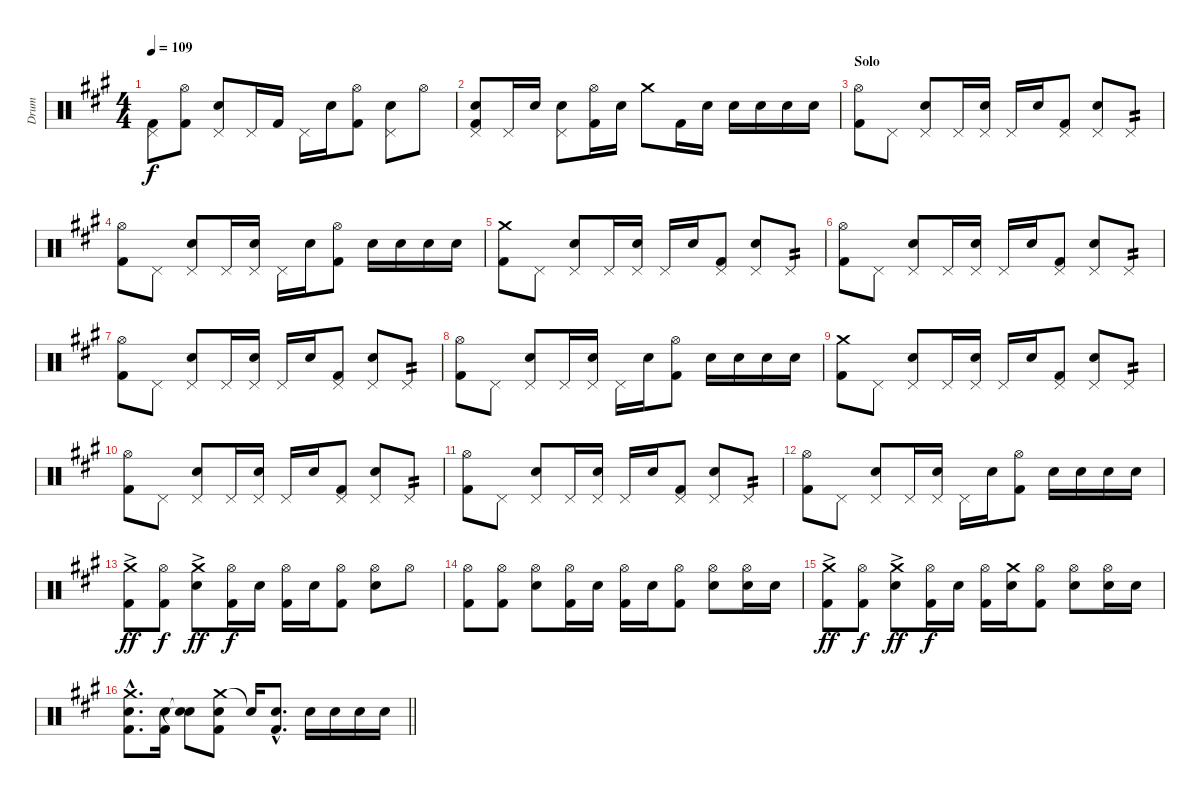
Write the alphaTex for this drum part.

\track ("Drum" "Drum") {instrument percussion}
\staff {score}
\articulation defaults
\ts (4 4)
\tempo 109
\clef neutral
\ks f#minor
("Pedal Hi-Hat (hit)" "Kick (hit) 2").8{dy f} ("Hi-Hat (open)" "Kick (hit) 2").8 ("Pedal Hi-Hat (hit)" "Electric Snare (hit)").8 "Pedal Hi-Hat (hit)".16 "Kick (hit) 2".16 "Pedal Hi-Hat (hit)".16 "Electric Snare (hit)".16 ("Hi-Hat (open)" "Kick (hit) 2").8 ("Pedal Hi-Hat (hit)" "Electric Snare (hit)").8 "Hi-Hat (open)".8 |
("Pedal Hi-Hat (hit)" "Electric Snare (hit)" "Kick (hit) 2").8 "Pedal Hi-Hat (hit)".16 "Electric Snare (hit)".16 ("Pedal Hi-Hat (hit)" "Electric Snare (hit)").8 ("Hi-Hat (open)" "Kick (hit) 2").16 "Electric Snare (hit)".16 "Crash medium (hit)".8 "Kick (hit) 2".16 "Electric Snare (hit)".16 "Electric Snare (hit)".16 "Electric Snare (hit)".16 "Electric Snare (hit)".16 "Electric Snare (hit)".16 |
\section ("" "Solo")
("Hi-Hat (open)" "Kick (hit) 2").8 "Pedal Hi-Hat (hit)".8 ("Pedal Hi-Hat (hit)" "Electric Snare (hit)").8 "Pedal Hi-Hat (hit)".16 ("Pedal Hi-Hat (hit)" "Electric Snare (hit)").16 "Pedal Hi-Hat (hit)".16 "Electric Snare (hit)".16 ("Pedal Hi-Hat (hit)" "Kick (hit) 2").8 ("Pedal Hi-Hat (hit)" "Electric Snare (hit)").8 "Pedal Hi-Hat (hit)".8{tp 2} |
("Hi-Hat (open)" "Kick (hit) 2").8 "Pedal Hi-Hat (hit)".8 ("Pedal Hi-Hat (hit)" "Electric Snare (hit)").8 "Pedal Hi-Hat (hit)".16 ("Pedal Hi-Hat (hit)" "Electric Snare (hit)").16 "Pedal Hi-Hat (hit)".16 "Electric Snare (hit)".16 ("Hi-Hat (open)" "Kick (hit) 2").8 "Electric Snare (hit)".16 "Electric Snare (hit)".16 "Electric Snare (hit)".16 "Electric Snare (hit)".16 |
("Crash medium (hit)" "Kick (hit) 2").8 "Pedal Hi-Hat (hit)".8 ("Pedal Hi-Hat (hit)" "Electric Snare (hit)").8 "Pedal Hi-Hat (hit)".16 ("Pedal Hi-Hat (hit)" "Electric Snare (hit)").16 "Pedal Hi-Hat (hit)".16 "Electric Snare (hit)".16 ("Pedal Hi-Hat (hit)" "Kick (hit) 2").8 ("Pedal Hi-Hat (hit)" "Electric Snare (hit)").8 "Pedal Hi-Hat (hit)".8{tp 2} |
("Hi-Hat (open)" "Kick (hit) 2").8 "Pedal Hi-Hat (hit)".8 ("Pedal Hi-Hat (hit)" "Electric Snare (hit)").8 "Pedal Hi-Hat (hit)".16 ("Pedal Hi-Hat (hit)" "Electric Snare (hit)").16 "Pedal Hi-Hat (hit)".16 "Electric Snare (hit)".16 ("Pedal Hi-Hat (hit)" "Kick (hit) 2").8 ("Pedal Hi-Hat (hit)" "Electric Snare (hit)").8 "Pedal Hi-Hat (hit)".8{tp 2} |
("Hi-Hat (open)" "Kick (hit) 2").8 "Pedal Hi-Hat (hit)".8 ("Pedal Hi-Hat (hit)" "Electric Snare (hit)").8 "Pedal Hi-Hat (hit)".16 ("Pedal Hi-Hat (hit)" "Electric Snare (hit)").16 "Pedal Hi-Hat (hit)".16 "Electric Snare (hit)".16 ("Pedal Hi-Hat (hit)" "Kick (hit) 2").8 ("Pedal Hi-Hat (hit)" "Electric Snare (hit)").8 "Pedal Hi-Hat (hit)".8{tp 2} |
("Hi-Hat (open)" "Kick (hit) 2").8 "Pedal Hi-Hat (hit)".8 ("Pedal Hi-Hat (hit)" "Electric Snare (hit)").8 "Pedal Hi-Hat (hit)".16 ("Pedal Hi-Hat (hit)" "Electric Snare (hit)").16 "Pedal Hi-Hat (hit)".16 "Electric Snare (hit)".16 ("Hi-Hat (open)" "Kick (hit) 2").8 "Electric Snare (hit)".16 "Electric Snare (hit)".16 "Electric Snare (hit)".16 "Electric Snare (hit)".16 |
("Crash medium (hit)" "Kick (hit) 2").8 "Pedal Hi-Hat (hit)".8 ("Pedal Hi-Hat (hit)" "Electric Snare (hit)").8 "Pedal Hi-Hat (hit)".16 ("Pedal Hi-Hat (hit)" "Electric Snare (hit)").16 "Pedal Hi-Hat (hit)".16 "Electric Snare (hit)".16 ("Pedal Hi-Hat (hit)" "Kick (hit) 2").8 ("Pedal Hi-Hat (hit)" "Electric Snare (hit)").8 "Pedal Hi-Hat (hit)".8{tp 2} |
("Hi-Hat (open)" "Kick (hit) 2").8 "Pedal Hi-Hat (hit)".8 ("Pedal Hi-Hat (hit)" "Electric Snare (hit)").8 "Pedal Hi-Hat (hit)".16 ("Pedal Hi-Hat (hit)" "Electric Snare (hit)").16 "Pedal Hi-Hat (hit)".16 "Electric Snare (hit)".16 ("Pedal Hi-Hat (hit)" "Kick (hit) 2").8 ("Pedal Hi-Hat (hit)" "Electric Snare (hit)").8 "Pedal Hi-Hat (hit)".8{tp 2} |
("Hi-Hat (open)" "Kick (hit) 2").8 "Pedal Hi-Hat (hit)".8 ("Pedal Hi-Hat (hit)" "Electric Snare (hit)").8 "Pedal Hi-Hat (hit)".16 ("Pedal Hi-Hat (hit)" "Electric Snare (hit)").16 "Pedal Hi-Hat (hit)".16 "Electric Snare (hit)".16 ("Pedal Hi-Hat (hit)" "Kick (hit) 2").8 ("Pedal Hi-Hat (hit)" "Electric Snare (hit)").8 "Pedal Hi-Hat (hit)".8{tp 2} |
("Hi-Hat (open)" "Kick (hit) 2").8 "Pedal Hi-Hat (hit)".8 ("Pedal Hi-Hat (hit)" "Electric Snare (hit)").8 "Pedal Hi-Hat (hit)".16 ("Pedal Hi-Hat (hit)" "Electric Snare (hit)").16 "Pedal Hi-Hat (hit)".16 "Electric Snare (hit)".16 ("Hi-Hat (open)" "Kick (hit) 2").8 "Electric Snare (hit)".16 "Electric Snare (hit)".16 "Electric Snare (hit)".16 "Electric Snare (hit)".16 |
("Crash medium (hit)"{ac} "Kick (hit) 2").8{dy ff} ("Hi-Hat (open)" "Kick (hit) 2").8{dy f} ("Crash medium (hit)"{ac} "Electric Snare (hit)").8{dy ff} ("Hi-Hat (open)" "Kick (hit) 2").16{dy f} "Electric Snare (hit)".16 ("Hi-Hat (open)" "Kick (hit) 2").16 "Electric Snare (hit)".16 ("Hi-Hat (open)" "Kick (hit) 2").8 ("Hi-Hat (open)" "Electric Snare (hit)").8 "Hi-Hat (open)".8 |
("Hi-Hat (open)" "Kick (hit) 2").8 ("Hi-Hat (open)" "Kick (hit) 2").8 ("Hi-Hat (open)" "Electric Snare (hit)").8 ("Hi-Hat (open)" "Kick (hit) 2").16 "Electric Snare (hit)".16 ("Hi-Hat (open)" "Kick (hit) 2").16 "Electric Snare (hit)".16 ("Hi-Hat (open)" "Kick (hit) 2").8 ("Hi-Hat (open)" "Electric Snare (hit)").8 ("Hi-Hat (open)" "Electric Snare (hit)").16 "Electric Snare (hit)".16 |
("Crash medium (hit)"{ac} "Kick (hit) 2").8{dy ff} ("Hi-Hat (open)" "Kick (hit) 2").8{dy f} ("Crash medium (hit)"{ac} "Electric Snare (hit)").8{dy ff} ("Hi-Hat (open)" "Kick (hit) 2").16{dy f} "Electric Snare (hit)".16 ("Hi-Hat (open)" "Kick (hit) 2").16 ("Crash medium (hit)" "Electric Snare (hit)").16 ("Hi-Hat (open)" "Kick (hit) 2").8 ("Hi-Hat (open)" "Electric Snare (hit)").8 ("Hi-Hat (open)" "Electric Snare (hit)").16 "Electric Snare (hit)".16 |
\barLineRight lightlight
("Crash medium (hit)"{hac} "Electric Snare (hit)"{hac} "Kick (hit) 2"{hac}).8{d} ("Electric Snare (hit)" "Kick (hit) 2").16 ("Electric Snare (hit)"{t} "Snare (hit)"{t}).8 ("Crash medium (hit)" "Electric Snare (hit)" "Kick (hit) 2").8 "Snare (hit)"{t}.16 ("Electric Snare (hit)"{hac} "Kick (hit) 2"{hac}).8{d} "Electric Snare (hit)".16 "Electric Snare (hit)".16 "Electric Snare (hit)".16 "Electric Snare (hit)".16
